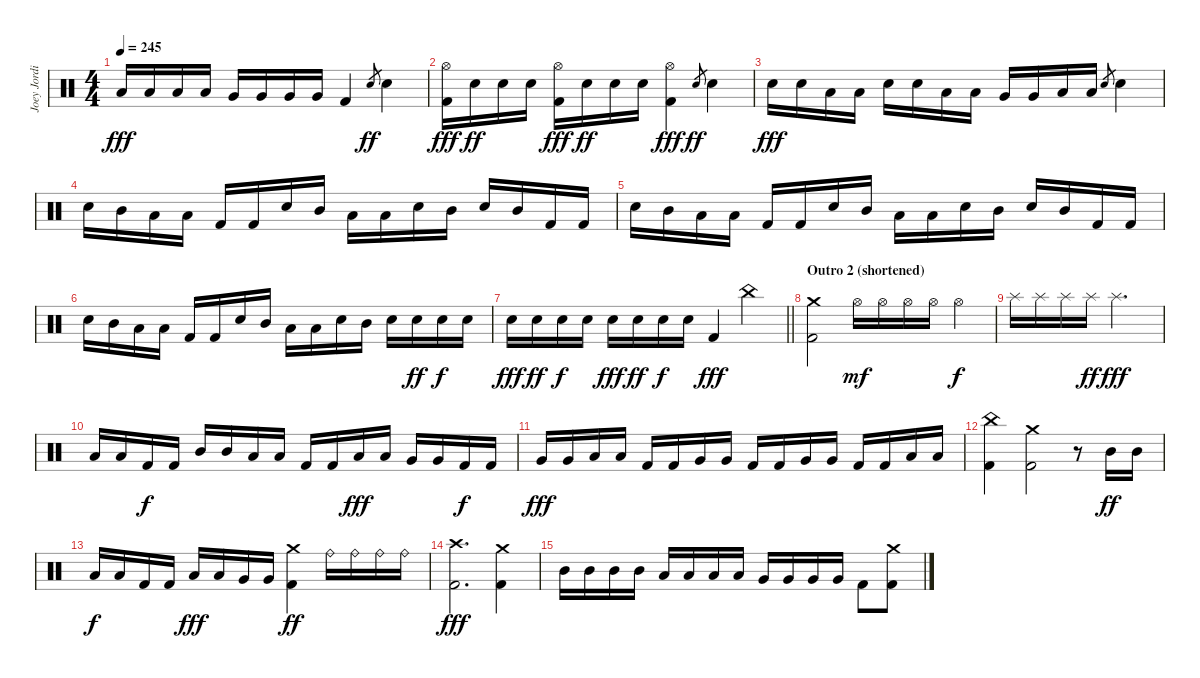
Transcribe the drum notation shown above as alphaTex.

\track ("Joey Jordison" "Joey Jordi") {instrument percussion}
\staff {score}
\articulation defaults
\ts (4 4)
\tempo 245
\clef neutral
\ks c "Low Tom (hit)".16{dy fff} "Low Tom (hit)".16 "Low Tom (hit)".16 "Low Tom (hit)".16 "Very Low Tom (hit)".16 "Very Low Tom (hit)".16 "Very Low Tom (hit)".16 "Very Low Tom (hit)".16 "Kick (hit) 2".4 "Electric Snare (hit)".8{gr dy ff} "Electric Snare (hit)".4
|
("Hi-Hat (open)" "Kick (hit) 2").16{dy fff} "Electric Snare (hit)".16{dy ff} "Electric Snare (hit)".16 "Electric Snare (hit)".16 ("Hi-Hat (open)" "Kick (hit) 2").16{dy fff} "Electric Snare (hit)".16{dy ff} "Electric Snare (hit)".16 "Electric Snare (hit)".16 ("Hi-Hat (open)" "Kick (hit) 2").4{dy fff} "Electric Snare (hit)".8{gr dy ff} "Electric Snare (hit)".4 |
"Electric Snare (hit)".16{dy fff} "Electric Snare (hit)".16 "Low Tom (hit)".16 "Low Tom (hit)".16 "Electric Snare (hit)".16 "Electric Snare (hit)".16 "Low Tom (hit)".16 "Low Tom (hit)".16 "Very Low Tom (hit)".16 "Very Low Tom (hit)".16 "Low Floor Tom (hit)".16 "Low Floor Tom (hit)".16 "Electric Snare (hit)".8{gr} "Electric Snare (hit)".4 |
"Electric Snare (hit)".16 "Mid Tom (hit)".16 "Low Tom (hit)".16 "Low Tom (hit)".16 "Kick (hit) 2".16 "Kick (hit) 2".16 "Electric Snare (hit)".16 "Mid Tom (hit)".16 "Low Tom (hit)".16 "Low Tom (hit)".16 "Electric Snare (hit)".16 "Mid Tom (hit)".16 "Electric Snare (hit)".16 "Mid Tom (hit)".16 "Kick (hit) 2".16 "Kick (hit) 2".16 |
"Electric Snare (hit)".16 "Mid Tom (hit)".16 "Low Tom (hit)".16 "Low Tom (hit)".16 "Kick (hit) 2".16 "Kick (hit) 2".16 "Electric Snare (hit)".16 "Mid Tom (hit)".16 "Low Tom (hit)".16 "Low Tom (hit)".16 "Electric Snare (hit)".16 "Mid Tom (hit)".16 "Electric Snare (hit)".16 "Mid Tom (hit)".16 "Kick (hit) 2".16 "Kick (hit) 2".16 |
"Electric Snare (hit)".16 "Mid Tom (hit)".16 "Low Tom (hit)".16 "Low Tom (hit)".16 "Kick (hit) 2".16 "Kick (hit) 2".16 "Electric Snare (hit)".16 "Mid Tom (hit)".16 "Low Tom (hit)".16 "Low Tom (hit)".16 "Electric Snare (hit)".16 "Mid Tom (hit)".16 "Electric Snare (hit)".16 "Electric Snare (hit)".16{dy ff} "Electric Snare (hit)".16{dy f} "Electric Snare (hit)".16 |
\barLineRight lightlight "Electric Snare (hit)".16{dy fff} "Electric Snare (hit)".16{dy ff} "Electric Snare (hit)".16{dy f} "Electric Snare (hit)".16 "Electric Snare (hit)".16{dy fff} "Electric Snare (hit)".16{dy ff} "Electric Snare (hit)".16{dy f} "Electric Snare (hit)".16 "Kick (hit) 2".4{dy fff} "China (hit)".4
|
\section ("" "Outro 2 (shortened)")
("Crash medium (hit)" "Kick (hit) 2").2 "Hi-Hat (open)".16{dy mf} "Hi-Hat (open)".16 "Hi-Hat (open)".16 "Hi-Hat (open)".16 "Hi-Hat (open)".4{dy f} |
"Splash (hit)".16 "Splash (hit)".16 "Splash (hit)".16 "Splash (hit)".16{dy ff} "Splash (hit)".2{d dy fff} |
"Low Tom (hit)".16 "Low Tom (hit)".16 "Kick (hit) 2".16{dy f} "Kick (hit) 2".16 "Mid Tom (hit)".16 "Mid Tom (hit)".16 "Low Tom (hit)".16 "Low Tom (hit)".16 "Kick (hit) 2".16 "Kick (hit) 2".16 "Low Tom (hit)".16{dy fff} "Low Tom (hit)".16 "Very Low Tom (hit)".16 "Very Low Tom (hit)".16 "Kick (hit) 2".16{dy f} "Kick (hit) 2".16 |
"Very Low Tom (hit)".16{dy fff} "Very Low Tom (hit)".16 "Low Floor Tom (hit)".16 "Low Floor Tom (hit)".16 "Kick (hit) 2".16 "Kick (hit) 2".16 "Very Low Tom (hit)".16 "Very Low Tom (hit)".16 "Kick (hit) 2".16 "Kick (hit) 2".16 "Very Low Tom (hit)".16 "Very Low Tom (hit)".16 "Kick (hit) 2".16 "Kick (hit) 2".16 "Low Floor Tom (hit)".16 "Low Floor Tom (hit)".16 |
("China (hit)" "Kick (hit) 2").4 ("Crash medium (hit)" "Kick (hit) 2").2 r.8 "Mid Tom (hit)".16{dy ff} "Mid Tom (hit)".16 |
"Low Tom (hit)".16{dy f} "Low Tom (hit)".16 "Kick (hit) 2".16 "Kick (hit) 2".16 "Low Tom (hit)".16{dy fff} "Low Tom (hit)".16 "Very Low Tom (hit)".16 "Very Low Tom (hit)".16 ("Crash medium (hit)" "Kick (hit) 2").4{dy ff} "Ride (bell)".16 "Ride (bell)".16 "Ride (bell)".16 "Ride (bell)".16 |
("Crash high (hit)" "Kick (hit) 2").2{d dy fff} ("Crash medium (hit)" "Kick (hit) 2").4 |
"Mid Tom (hit)".16 "Mid Tom (hit)".16 "Mid Tom (hit)".16 "Mid Tom (hit)".16 "Low Tom (hit)".16 "Low Tom (hit)".16 "Low Tom (hit)".16 "Low Tom (hit)".16 "Very Low Tom (hit)".16 "Very Low Tom (hit)".16 "Very Low Tom (hit)".16 "Very Low Tom (hit)".16 "Kick (hit) 2".8 ("Crash medium (hit)" "Kick (hit) 2").8
